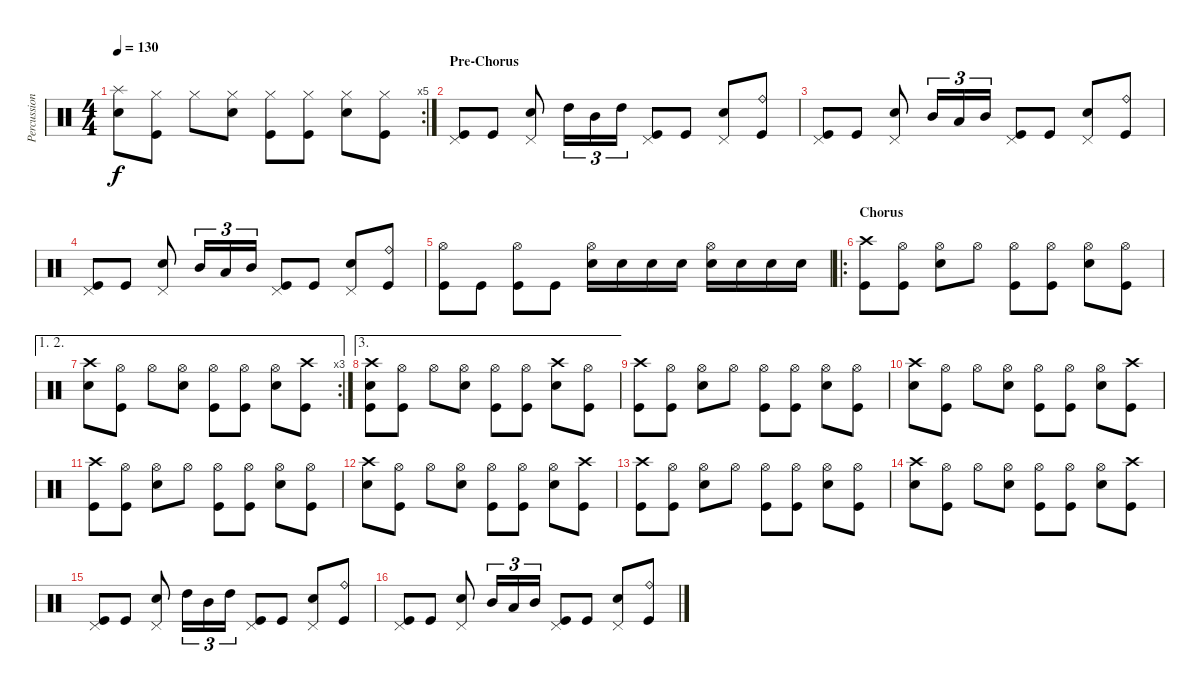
\track ("Percussion" "Percussion") {instrument percussion}
\staff {score}
\articulation defaults
\rc 5
\ts (4 4)
\tempo 130
\clef neutral
\ks c
("Splash (hit)" "Electric Snare (hit)").8{dy f} ("Hi-Hat (closed)" "Kick (hit)").8 "Hi-Hat (closed)".8 ("Hi-Hat (closed)" "Electric Snare (hit)").8 ("Hi-Hat (closed)" "Kick (hit)").8 ("Hi-Hat (closed)" "Kick (hit)").8 ("Hi-Hat (closed)" "Electric Snare (hit)").8 ("Hi-Hat (closed)" "Kick (hit)").8 |
\section ("" "Pre-Chorus")
("Pedal Hi-Hat (hit)" "Kick (hit)").8 "Kick (hit)".8 ("Pedal Hi-Hat (hit)" "Electric Snare (hit)").8 "High Tom (hit)".16{tu (3 2)} "Mid Tom (hit)".16{tu (3 2)} "High Tom (hit)".16{tu (3 2)} ("Pedal Hi-Hat (hit)" "Kick (hit)").8 "Kick (hit)".8 ("Pedal Hi-Hat (hit)" "Electric Snare (hit)").8 ("Ride (bell)" "Kick (hit)").8 |
("Pedal Hi-Hat (hit)" "Kick (hit)").8 "Kick (hit)".8 ("Pedal Hi-Hat (hit)" "Electric Snare (hit)").8 "Mid Tom (hit)".16{tu (3 2)} "Low Tom (hit)".16{tu (3 2)} "Mid Tom (hit)".16{tu (3 2)} ("Pedal Hi-Hat (hit)" "Kick (hit)").8 "Kick (hit)".8 ("Pedal Hi-Hat (hit)" "Electric Snare (hit)").8 ("Ride (bell)" "Kick (hit)").8 |
("Pedal Hi-Hat (hit)" "Kick (hit)").8 "Kick (hit)".8 ("Pedal Hi-Hat (hit)" "Electric Snare (hit)").8 "Mid Tom (hit)".16{tu (3 2)} "Low Tom (hit)".16{tu (3 2)} "Mid Tom (hit)".16{tu (3 2)} ("Pedal Hi-Hat (hit)" "Kick (hit)").8 "Kick (hit)".8 ("Pedal Hi-Hat (hit)" "Electric Snare (hit)").8 ("Ride (bell)" "Kick (hit)").8 |
("Hi-Hat (open)" "Kick (hit)").8 "Kick (hit)".8 ("Hi-Hat (open)" "Kick (hit)").8 "Kick (hit)".8 ("Hi-Hat (open)" "Electric Snare (hit)").16 "Electric Snare (hit)".16 "Electric Snare (hit)".16 "Electric Snare (hit)".16 ("Hi-Hat (open)" "Electric Snare (hit)").16 "Electric Snare (hit)".16 "Electric Snare (hit)".16 "Electric Snare (hit)".16 |
\ro
\section ("" "Chorus")
("Crash high (hit)" "Kick (hit)").8 ("Hi-Hat (open)" "Kick (hit)").8 ("Hi-Hat (open)" "Electric Snare (hit)").8 "Hi-Hat (open)".8 ("Hi-Hat (open)" "Kick (hit)").8 ("Hi-Hat (open)" "Kick (hit)").8 ("Hi-Hat (open)" "Electric Snare (hit)").8 ("Hi-Hat (open)" "Kick (hit)").8 |
\ae (1 2)
\rc 3
("Crash high (hit)" "Electric Snare (hit)").8 ("Hi-Hat (open)" "Kick (hit)").8 "Hi-Hat (open)".8 ("Hi-Hat (open)" "Electric Snare (hit)").8 ("Hi-Hat (open)" "Kick (hit)").8 ("Hi-Hat (open)" "Kick (hit)").8 ("Hi-Hat (open)" "Electric Snare (hit)").8 ("Crash high (hit)" "Kick (hit)").8 |
\ae 3
("Crash high (hit)" "Electric Snare (hit)" "Kick (hit)").8 ("Hi-Hat (open)" "Kick (hit)").8 "Hi-Hat (open)".8 ("Hi-Hat (open)" "Electric Snare (hit)").8 ("Hi-Hat (open)" "Kick (hit)").8 ("Hi-Hat (open)" "Kick (hit)").8 ("Crash high (hit)" "Electric Snare (hit)").8 ("Hi-Hat (open)" "Kick (hit)").8 |
("Crash high (hit)" "Kick (hit)").8 ("Hi-Hat (open)" "Kick (hit)").8 ("Hi-Hat (open)" "Electric Snare (hit)").8 "Hi-Hat (open)".8 ("Hi-Hat (open)" "Kick (hit)").8 ("Hi-Hat (open)" "Kick (hit)").8 ("Hi-Hat (open)" "Electric Snare (hit)").8 ("Hi-Hat (open)" "Kick (hit)").8 |
("Crash high (hit)" "Electric Snare (hit)").8 ("Hi-Hat (open)" "Kick (hit)").8 "Hi-Hat (open)".8 ("Hi-Hat (open)" "Electric Snare (hit)").8 ("Hi-Hat (open)" "Kick (hit)").8 ("Hi-Hat (open)" "Kick (hit)").8 ("Hi-Hat (open)" "Electric Snare (hit)").8 ("Crash high (hit)" "Kick (hit)").8 |
("Crash high (hit)" "Kick (hit)").8 ("Hi-Hat (open)" "Kick (hit)").8 ("Hi-Hat (open)" "Electric Snare (hit)").8 "Hi-Hat (open)".8 ("Hi-Hat (open)" "Kick (hit)").8 ("Hi-Hat (open)" "Kick (hit)").8 ("Hi-Hat (open)" "Electric Snare (hit)").8 ("Hi-Hat (open)" "Kick (hit)").8 |
("Crash high (hit)" "Electric Snare (hit)").8 ("Hi-Hat (open)" "Kick (hit)").8 "Hi-Hat (open)".8 ("Hi-Hat (open)" "Electric Snare (hit)").8 ("Hi-Hat (open)" "Kick (hit)").8 ("Hi-Hat (open)" "Kick (hit)").8 ("Hi-Hat (open)" "Electric Snare (hit)").8 ("Crash high (hit)" "Kick (hit)").8 |
("Crash high (hit)" "Kick (hit)").8 ("Hi-Hat (open)" "Kick (hit)").8 ("Hi-Hat (open)" "Electric Snare (hit)").8 "Hi-Hat (open)".8 ("Hi-Hat (open)" "Kick (hit)").8 ("Hi-Hat (open)" "Kick (hit)").8 ("Hi-Hat (open)" "Electric Snare (hit)").8 ("Hi-Hat (open)" "Kick (hit)").8 |
("Crash high (hit)" "Electric Snare (hit)").8 ("Hi-Hat (open)" "Kick (hit)").8 "Hi-Hat (open)".8 ("Hi-Hat (open)" "Electric Snare (hit)").8 ("Hi-Hat (open)" "Kick (hit)").8 ("Hi-Hat (open)" "Kick (hit)").8 ("Hi-Hat (open)" "Electric Snare (hit)").8 ("Crash high (hit)" "Kick (hit)").8 |
("Pedal Hi-Hat (hit)" "Kick (hit)").8 "Kick (hit)".8 ("Pedal Hi-Hat (hit)" "Electric Snare (hit)").8 "High Tom (hit)".16{tu (3 2)} "Mid Tom (hit)".16{tu (3 2)} "High Tom (hit)".16{tu (3 2)} ("Pedal Hi-Hat (hit)" "Kick (hit)").8 "Kick (hit)".8 ("Pedal Hi-Hat (hit)" "Electric Snare (hit)").8 ("Ride (bell)" "Kick (hit)").8 |
("Pedal Hi-Hat (hit)" "Kick (hit)").8 "Kick (hit)".8 ("Pedal Hi-Hat (hit)" "Electric Snare (hit)").8 "Mid Tom (hit)".16{tu (3 2)} "Low Tom (hit)".16{tu (3 2)} "Mid Tom (hit)".16{tu (3 2)} ("Pedal Hi-Hat (hit)" "Kick (hit)").8 "Kick (hit)".8 ("Pedal Hi-Hat (hit)" "Electric Snare (hit)").8 ("Ride (bell)" "Kick (hit)").8
